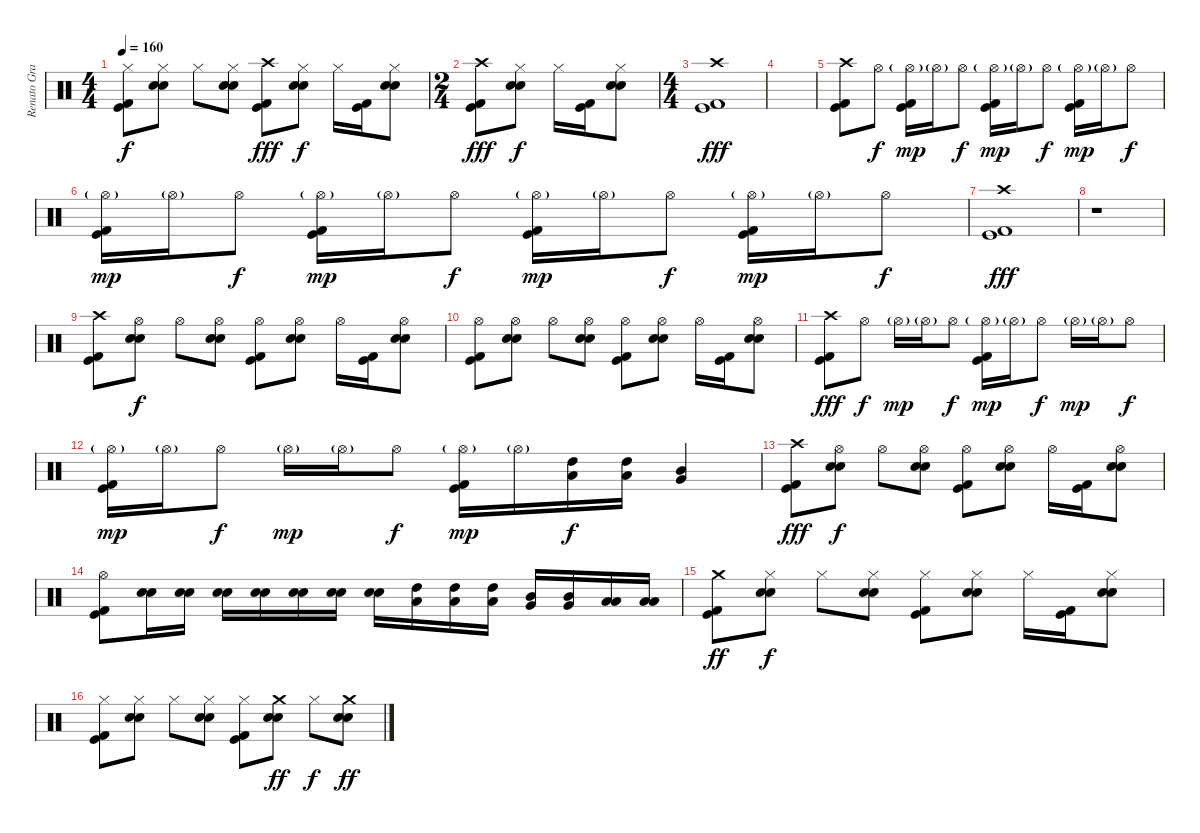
\track ("Renato Graccia" "Renato Gra") {instrument percussion}
\staff {score}
\articulation defaults
\ts (4 4)
\tempo 160
\clef neutral
\ks c
("Hi-Hat (closed)" "Kick (hit) 2" "Kick (hit)").8{dy f} ("Hi-Hat (closed)" "Electric Snare (hit)" "Snare (hit) 2").8 "Hi-Hat (closed)".8 ("Hi-Hat (closed)" "Electric Snare (hit)" "Snare (hit) 2").8 ("Crash high (hit)" "Kick (hit) 2" "Kick (hit)").8{dy fff} ("Hi-Hat (closed)" "Electric Snare (hit)" "Snare (hit) 2").8{dy f} "Hi-Hat (closed)".16 ("Kick (hit) 2" "Kick (hit)").16 ("Hi-Hat (closed)" "Electric Snare (hit)" "Snare (hit) 2").8 |
\ts (2 4)
("Crash high (hit)" "Kick (hit) 2" "Kick (hit)").8{dy fff} ("Hi-Hat (closed)" "Electric Snare (hit)" "Snare (hit) 2").8{dy f} "Hi-Hat (closed)".16 ("Kick (hit) 2" "Kick (hit)").16 ("Hi-Hat (closed)" "Electric Snare (hit)" "Snare (hit) 2").8 |
\ts (4 4)
("Crash high (hit)" "Kick (hit) 2" "Kick (hit)").1{dy fff} |
|
("Crash high (hit)" "Kick (hit) 2" "Kick (hit)").8 "Hi-Hat (open)".8{dy f} ("Hi-Hat (open)"{g} "Kick (hit) 2" "Kick (hit)").16{dy mp} "Hi-Hat (open)"{g}.16 "Hi-Hat (open)".8{dy f} ("Hi-Hat (open)"{g} "Kick (hit) 2" "Kick (hit)").16{dy mp} "Hi-Hat (open)"{g}.16 "Hi-Hat (open)".8{dy f} ("Hi-Hat (open)"{g} "Kick (hit) 2" "Kick (hit)").16{dy mp} "Hi-Hat (open)"{g}.16 "Hi-Hat (open)".8{dy f} |
("Hi-Hat (open)"{g} "Kick (hit) 2" "Kick (hit)").16{dy mp} "Hi-Hat (open)"{g}.16 "Hi-Hat (open)".8{dy f} ("Hi-Hat (open)"{g} "Kick (hit) 2" "Kick (hit)").16{dy mp} "Hi-Hat (open)"{g}.16 "Hi-Hat (open)".8{dy f} ("Hi-Hat (open)"{g} "Kick (hit) 2" "Kick (hit)").16{dy mp} "Hi-Hat (open)"{g}.16 "Hi-Hat (open)".8{dy f} ("Hi-Hat (open)"{g} "Kick (hit) 2" "Kick (hit)").16{dy mp} "Hi-Hat (open)"{g}.16 "Hi-Hat (open)".8{dy f} |
("Crash high (hit)" "Kick (hit) 2" "Kick (hit)").1{dy fff} |
r.1 |
("Crash high (hit)" "Kick (hit) 2" "Kick (hit)").8 ("Hi-Hat (open)" "Electric Snare (hit)" "Snare (hit) 2").8{dy f} "Hi-Hat (open)".8 ("Hi-Hat (open)" "Electric Snare (hit)" "Snare (hit) 2").8 ("Hi-Hat (open)" "Kick (hit) 2" "Kick (hit)").8 ("Hi-Hat (open)" "Electric Snare (hit)" "Snare (hit) 2").8 "Hi-Hat (open)".16 ("Kick (hit) 2" "Kick (hit)").16 ("Hi-Hat (open)" "Electric Snare (hit)" "Snare (hit) 2").8 |
("Hi-Hat (open)" "Kick (hit) 2" "Kick (hit)").8 ("Hi-Hat (open)" "Electric Snare (hit)" "Snare (hit) 2").8 "Hi-Hat (open)".8 ("Hi-Hat (open)" "Electric Snare (hit)" "Snare (hit) 2").8 ("Hi-Hat (open)" "Kick (hit) 2" "Kick (hit)").8 ("Hi-Hat (open)" "Electric Snare (hit)" "Snare (hit) 2").8 "Hi-Hat (open)".16 ("Kick (hit) 2" "Kick (hit)").16 ("Hi-Hat (open)" "Electric Snare (hit)" "Snare (hit) 2").8 |
("Crash high (hit)" "Kick (hit) 2" "Kick (hit)").8{dy fff} "Hi-Hat (open)".8{dy f} "Hi-Hat (open)"{g}.16{dy mp} "Hi-Hat (open)"{g}.16 "Hi-Hat (open)".8{dy f} ("Hi-Hat (open)"{g} "Kick (hit) 2" "Kick (hit)").16{dy mp} "Hi-Hat (open)"{g}.16 "Hi-Hat (open)".8{dy f} "Hi-Hat (open)"{g}.16{dy mp} "Hi-Hat (open)"{g}.16 "Hi-Hat (open)".8{dy f} |
("Hi-Hat (open)"{g} "Kick (hit) 2" "Kick (hit)").16{dy mp} "Hi-Hat (open)"{g}.16 "Hi-Hat (open)".8{dy f} "Hi-Hat (open)"{g}.16{dy mp} "Hi-Hat (open)"{g}.16 "Hi-Hat (open)".8{dy f} ("Hi-Hat (open)"{g} "Kick (hit) 2" "Kick (hit)").16{dy mp} "Hi-Hat (open)"{g}.16 ("High Tom (hit)" "Low Tom (hit)").16{dy f} ("High Tom (hit)" "Low Tom (hit)").16 ("Mid Tom (hit)" "Very Low Tom (hit)").4 |
("Crash high (hit)" "Kick (hit) 2" "Kick (hit)").8{dy fff} ("Hi-Hat (open)" "Electric Snare (hit)" "Snare (hit) 2").8{dy f} "Hi-Hat (open)".8 ("Hi-Hat (open)" "Electric Snare (hit)" "Snare (hit) 2").8 ("Hi-Hat (open)" "Kick (hit) 2" "Kick (hit)").8 ("Hi-Hat (open)" "Electric Snare (hit)" "Snare (hit) 2").8 "Hi-Hat (open)".16 ("Kick (hit) 2" "Kick (hit)").16 ("Hi-Hat (open)" "Electric Snare (hit)" "Snare (hit) 2").8 |
("Hi-Hat (open)" "Kick (hit) 2" "Kick (hit)").8 ("Electric Snare (hit)" "Snare (hit) 2").16 ("Electric Snare (hit)" "Snare (hit) 2").16 ("Electric Snare (hit)" "Snare (hit) 2").16 ("Electric Snare (hit)" "Snare (hit) 2").16 ("Electric Snare (hit)" "Snare (hit) 2").16 ("Electric Snare (hit)" "Snare (hit) 2").16 ("Electric Snare (hit)" "Snare (hit) 2").16 ("High Tom (hit)" "Low Tom (hit)").16 ("High Tom (hit)" "Low Tom (hit)").16 ("High Tom (hit)" "Low Tom (hit)").16 ("Mid Tom (hit)" "Very Low Tom (hit)").16 ("Mid Tom (hit)" "Very Low Tom (hit)").16 ("Low Tom (hit)" "Low Floor Tom (hit)").16 ("Low Tom (hit)" "Low Floor Tom (hit)").16 |
("Crash medium (hit)" "Kick (hit) 2" "Kick (hit)").8{dy ff} ("Hi-Hat (closed)" "Electric Snare (hit)" "Snare (hit) 2").8{dy f} "Hi-Hat (closed)".8 ("Hi-Hat (closed)" "Electric Snare (hit)" "Snare (hit) 2").8 ("Hi-Hat (closed)" "Kick (hit) 2" "Kick (hit)").8 ("Hi-Hat (closed)" "Electric Snare (hit)" "Snare (hit) 2").8 "Hi-Hat (closed)".16 ("Kick (hit) 2" "Kick (hit)").16 ("Hi-Hat (closed)" "Electric Snare (hit)" "Snare (hit) 2").8 |
("Hi-Hat (closed)" "Kick (hit) 2" "Kick (hit)").8 ("Hi-Hat (closed)" "Electric Snare (hit)" "Snare (hit) 2").8 "Hi-Hat (closed)".8 ("Hi-Hat (closed)" "Electric Snare (hit)" "Snare (hit) 2").8 ("Hi-Hat (closed)" "Kick (hit) 2" "Kick (hit)").8 ("Crash medium (hit)" "Electric Snare (hit)" "Snare (hit) 2").8{dy ff} "Hi-Hat (closed)".8{dy f} ("Crash medium (hit)" "Electric Snare (hit)" "Snare (hit) 2").8{dy ff}
